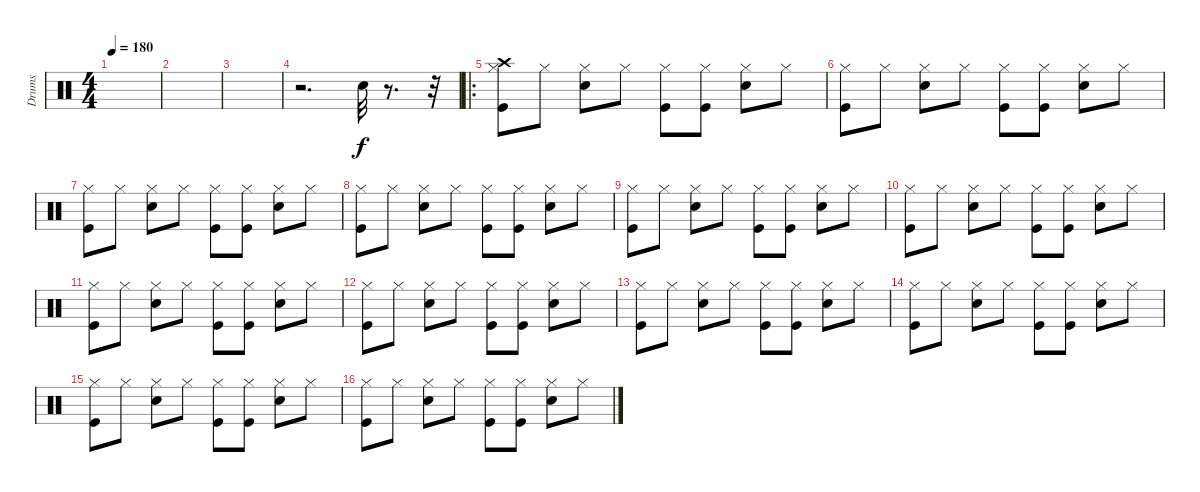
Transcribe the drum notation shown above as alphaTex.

\track ("Drums" "Drums") {instrument percussion}
\staff {score}
\articulation defaults
\ts (4 4)
\tempo 180
\clef neutral
\ks c
|
|
|
r.2{d} "Electric Snare (hit)".32 r.8{d} r.32 |
\ro
("Crash high (hit)" "Hi-Hat (closed)" "Kick (hit)").8{dy f} "Hi-Hat (closed)".8 ("Hi-Hat (closed)" "Electric Snare (hit)").8 "Hi-Hat (closed)".8 ("Kick (hit)" "Hi-Hat (closed)").8 ("Hi-Hat (closed)" "Kick (hit)").8 ("Hi-Hat (closed)" "Electric Snare (hit)").8 "Hi-Hat (closed)".8 |
("Hi-Hat (closed)" "Kick (hit)").8 "Hi-Hat (closed)".8 ("Hi-Hat (closed)" "Electric Snare (hit)").8 "Hi-Hat (closed)".8 ("Kick (hit)" "Hi-Hat (closed)").8 ("Hi-Hat (closed)" "Kick (hit)").8 ("Hi-Hat (closed)" "Electric Snare (hit)").8 "Hi-Hat (closed)".8 |
("Hi-Hat (closed)" "Kick (hit)").8 "Hi-Hat (closed)".8 ("Hi-Hat (closed)" "Electric Snare (hit)").8 "Hi-Hat (closed)".8 ("Kick (hit)" "Hi-Hat (closed)").8 ("Hi-Hat (closed)" "Kick (hit)").8 ("Hi-Hat (closed)" "Electric Snare (hit)").8 "Hi-Hat (closed)".8 |
("Hi-Hat (closed)" "Kick (hit)").8 "Hi-Hat (closed)".8 ("Hi-Hat (closed)" "Electric Snare (hit)").8 "Hi-Hat (closed)".8 ("Kick (hit)" "Hi-Hat (closed)").8 ("Hi-Hat (closed)" "Kick (hit)").8 ("Hi-Hat (closed)" "Electric Snare (hit)").8 "Hi-Hat (closed)".8 |
("Hi-Hat (closed)" "Kick (hit)").8 "Hi-Hat (closed)".8 ("Hi-Hat (closed)" "Electric Snare (hit)").8 "Hi-Hat (closed)".8 ("Kick (hit)" "Hi-Hat (closed)").8 ("Hi-Hat (closed)" "Kick (hit)").8 ("Hi-Hat (closed)" "Electric Snare (hit)").8 "Hi-Hat (closed)".8 |
("Hi-Hat (closed)" "Kick (hit)").8 "Hi-Hat (closed)".8 ("Hi-Hat (closed)" "Electric Snare (hit)").8 "Hi-Hat (closed)".8 ("Kick (hit)" "Hi-Hat (closed)").8 ("Hi-Hat (closed)" "Kick (hit)").8 ("Hi-Hat (closed)" "Electric Snare (hit)").8 "Hi-Hat (closed)".8 |
("Hi-Hat (closed)" "Kick (hit)").8 "Hi-Hat (closed)".8 ("Hi-Hat (closed)" "Electric Snare (hit)").8 "Hi-Hat (closed)".8 ("Kick (hit)" "Hi-Hat (closed)").8 ("Hi-Hat (closed)" "Kick (hit)").8 ("Hi-Hat (closed)" "Electric Snare (hit)").8 "Hi-Hat (closed)".8 |
("Hi-Hat (closed)" "Kick (hit)").8 "Hi-Hat (closed)".8 ("Hi-Hat (closed)" "Electric Snare (hit)").8 "Hi-Hat (closed)".8 ("Kick (hit)" "Hi-Hat (closed)").8 ("Hi-Hat (closed)" "Kick (hit)").8 ("Hi-Hat (closed)" "Electric Snare (hit)").8 "Hi-Hat (closed)".8 |
("Hi-Hat (closed)" "Kick (hit)").8 "Hi-Hat (closed)".8 ("Hi-Hat (closed)" "Electric Snare (hit)").8 "Hi-Hat (closed)".8 ("Kick (hit)" "Hi-Hat (closed)").8 ("Hi-Hat (closed)" "Kick (hit)").8 ("Hi-Hat (closed)" "Electric Snare (hit)").8 "Hi-Hat (closed)".8 |
("Hi-Hat (closed)" "Kick (hit)").8 "Hi-Hat (closed)".8 ("Hi-Hat (closed)" "Electric Snare (hit)").8 "Hi-Hat (closed)".8 ("Kick (hit)" "Hi-Hat (closed)").8 ("Hi-Hat (closed)" "Kick (hit)").8 ("Hi-Hat (closed)" "Electric Snare (hit)").8 "Hi-Hat (closed)".8 |
("Hi-Hat (closed)" "Kick (hit)").8 "Hi-Hat (closed)".8 ("Hi-Hat (closed)" "Electric Snare (hit)").8 "Hi-Hat (closed)".8 ("Kick (hit)" "Hi-Hat (closed)").8 ("Hi-Hat (closed)" "Kick (hit)").8 ("Hi-Hat (closed)" "Electric Snare (hit)").8 "Hi-Hat (closed)".8 |
("Hi-Hat (closed)" "Kick (hit)").8 "Hi-Hat (closed)".8 ("Hi-Hat (closed)" "Electric Snare (hit)").8 "Hi-Hat (closed)".8 ("Kick (hit)" "Hi-Hat (closed)").8 ("Hi-Hat (closed)" "Kick (hit)").8 ("Hi-Hat (closed)" "Electric Snare (hit)").8 "Hi-Hat (closed)".8
